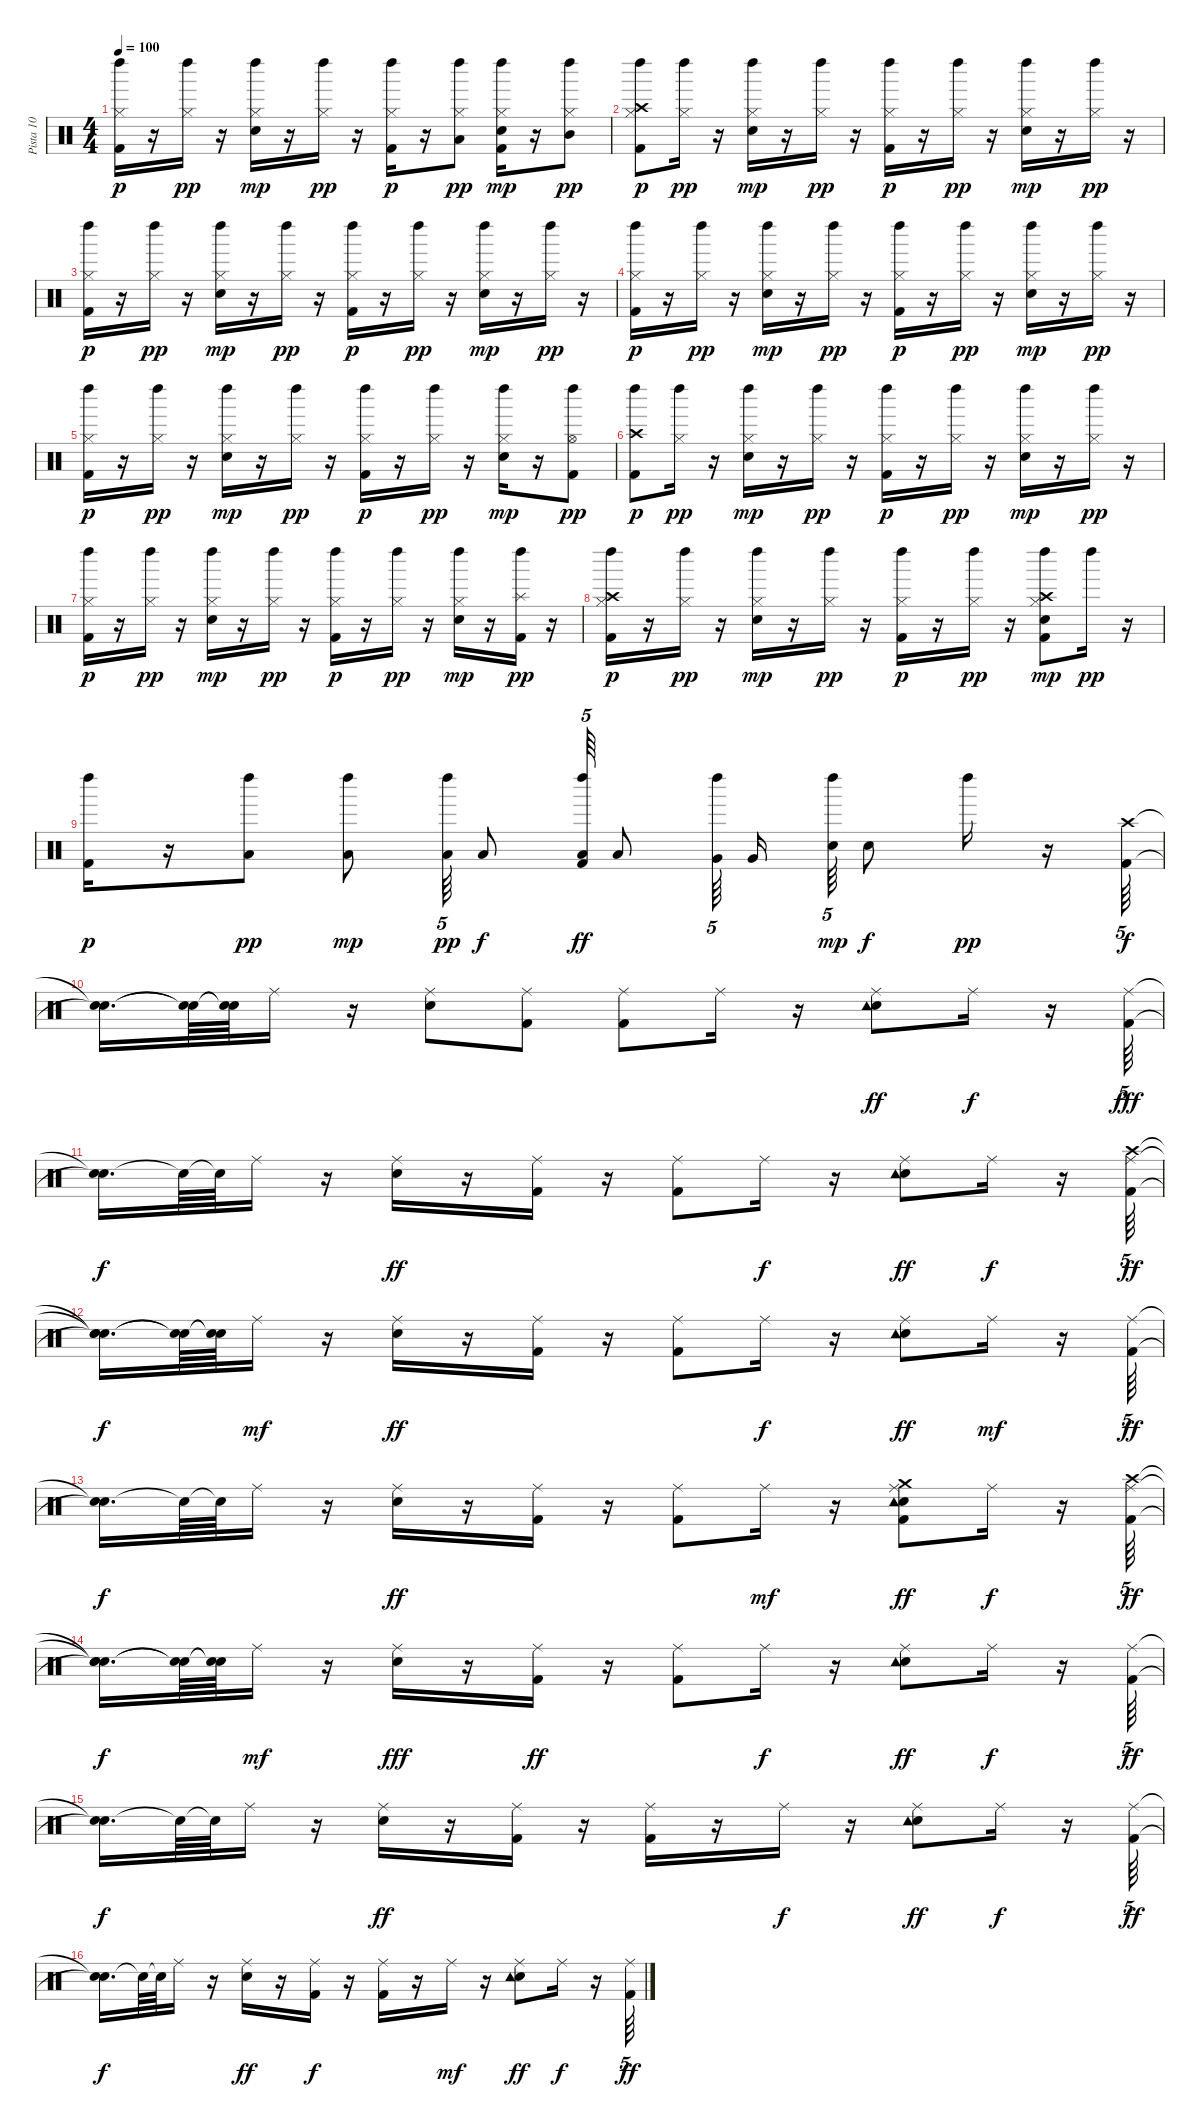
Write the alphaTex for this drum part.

\track ("Pista 10" "Pista 10") {instrument percussion}
\staff {score}
\articulation defaults
\ts (4 4)
\tempo 100
\clef neutral
\ks c
("Kick (hit) 2" "Hi-Hat (closed)" "Left Maraca (hit)").16{dy p} r.16 ("Hi-Hat (closed)" "Left Maraca (hit)").16{dy pp} r.16 ("Snare (hit) 2" "Hi-Hat (closed)" "Left Maraca (hit)").16{dy mp} r.16 ("Hi-Hat (closed)" "Left Maraca (hit)").16{dy pp} r.16 ("Kick (hit) 2" "Hi-Hat (closed)" "Left Maraca (hit)").16{dy p} r.16 ("Low Tom (hit)" "Hi-Hat (closed)" "Left Maraca (hit)").8{dy pp} ("Kick (hit) 2" "Snare (hit) 2" "Hi-Hat (closed)" "Left Maraca (hit)").16{dy mp} r.16 ("Mid Tom (hit)" "Hi-Hat (closed)" "Left Maraca (hit)").8{dy pp} |
("Crash high (hit)" "Kick (hit) 2" "Hi-Hat (closed)" "Left Maraca (hit)").8{dy p} ("Hi-Hat (closed)" "Left Maraca (hit)").16{dy pp} r.16 ("Snare (hit) 2" "Hi-Hat (closed)" "Left Maraca (hit)").16{dy mp} r.16 ("Hi-Hat (closed)" "Left Maraca (hit)").16{dy pp} r.16 ("Kick (hit) 2" "Hi-Hat (closed)" "Left Maraca (hit)").16{dy p} r.16 ("Hi-Hat (closed)" "Left Maraca (hit)").16{dy pp} r.16 ("Snare (hit) 2" "Hi-Hat (closed)" "Left Maraca (hit)").16{dy mp} r.16 ("Hi-Hat (closed)" "Left Maraca (hit)").16{dy pp} r.16 |
("Kick (hit) 2" "Hi-Hat (closed)" "Left Maraca (hit)").16{dy p} r.16 ("Hi-Hat (closed)" "Left Maraca (hit)").16{dy pp} r.16 ("Snare (hit) 2" "Hi-Hat (closed)" "Left Maraca (hit)").16{dy mp} r.16 ("Hi-Hat (closed)" "Left Maraca (hit)").16{dy pp} r.16 ("Kick (hit) 2" "Hi-Hat (closed)" "Left Maraca (hit)").16{dy p} r.16 ("Hi-Hat (closed)" "Left Maraca (hit)").16{dy pp} r.16 ("Snare (hit) 2" "Hi-Hat (closed)" "Left Maraca (hit)").16{dy mp} r.16 ("Hi-Hat (closed)" "Left Maraca (hit)").16{dy pp} r.16 |
("Kick (hit) 2" "Hi-Hat (closed)" "Left Maraca (hit)").16{dy p} r.16 ("Hi-Hat (closed)" "Left Maraca (hit)").16{dy pp} r.16 ("Snare (hit) 2" "Hi-Hat (closed)" "Left Maraca (hit)").16{dy mp} r.16 ("Hi-Hat (closed)" "Left Maraca (hit)").16{dy pp} r.16 ("Kick (hit) 2" "Hi-Hat (closed)" "Left Maraca (hit)").16{dy p} r.16 ("Hi-Hat (closed)" "Left Maraca (hit)").16{dy pp} r.16 ("Snare (hit) 2" "Hi-Hat (closed)" "Left Maraca (hit)").16{dy mp} r.16 ("Hi-Hat (closed)" "Left Maraca (hit)").16{dy pp} r.16 |
("Kick (hit) 2" "Hi-Hat (closed)" "Left Maraca (hit)").16{dy p} r.16 ("Hi-Hat (closed)" "Left Maraca (hit)").16{dy pp} r.16 ("Snare (hit) 2" "Hi-Hat (closed)" "Left Maraca (hit)").16{dy mp} r.16 ("Hi-Hat (closed)" "Left Maraca (hit)").16{dy pp} r.16 ("Kick (hit) 2" "Hi-Hat (closed)" "Left Maraca (hit)").16{dy p} r.16 ("Hi-Hat (closed)" "Left Maraca (hit)").16{dy pp} r.16 ("Snare (hit) 2" "Hi-Hat (closed)" "Left Maraca (hit)").16{dy mp} r.16 ("Kick (hit) 2" "Hi-Hat (open)" "Left Maraca (hit)").8{dy pp} |
("Crash high (hit)" "Kick (hit) 2" "Left Maraca (hit)").8{dy p} ("Hi-Hat (closed)" "Left Maraca (hit)").16{dy pp} r.16 ("Snare (hit) 2" "Hi-Hat (closed)" "Left Maraca (hit)").16{dy mp} r.16 ("Hi-Hat (closed)" "Left Maraca (hit)").16{dy pp} r.16 ("Kick (hit) 2" "Hi-Hat (closed)" "Left Maraca (hit)").16{dy p} r.16 ("Hi-Hat (closed)" "Left Maraca (hit)").16{dy pp} r.16 ("Snare (hit) 2" "Hi-Hat (closed)" "Left Maraca (hit)").16{dy mp} r.16 ("Hi-Hat (closed)" "Left Maraca (hit)").16{dy pp} r.16 |
("Kick (hit) 2" "Hi-Hat (closed)" "Left Maraca (hit)").16{dy p} r.16 ("Hi-Hat (closed)" "Left Maraca (hit)").16{dy pp} r.16 ("Snare (hit) 2" "Hi-Hat (closed)" "Left Maraca (hit)").16{dy mp} r.16 ("Hi-Hat (closed)" "Left Maraca (hit)").16{dy pp} r.16 ("Kick (hit) 2" "Hi-Hat (closed)" "Left Maraca (hit)").16{dy p} r.16 ("Hi-Hat (closed)" "Left Maraca (hit)").16{dy pp} r.16 ("Snare (hit) 2" "Hi-Hat (closed)" "Left Maraca (hit)").16{dy mp} r.16 ("Kick (hit) 2" "Splash (hit)" "Left Maraca (hit)").16{dy pp} r.16 |
("Crash high (hit)" "Kick (hit) 2" "Hi-Hat (closed)" "Left Maraca (hit)").16{dy p} r.16 ("Hi-Hat (closed)" "Left Maraca (hit)").16{dy pp} r.16 ("Snare (hit) 2" "Hi-Hat (closed)" "Left Maraca (hit)").16{dy mp} r.16 ("Hi-Hat (closed)" "Left Maraca (hit)").16{dy pp} r.16 ("Kick (hit) 2" "Hi-Hat (closed)" "Left Maraca (hit)").16{dy p} r.16 ("Hi-Hat (closed)" "Left Maraca (hit)").16{dy pp} r.16 ("Kick (hit) 2" "Crash high (hit)" "Snare (hit) 2" "Hi-Hat (closed)" "Left Maraca (hit)").8{dy mp} "Left Maraca (hit)".16{dy pp} r.16 |
("Kick (hit) 2" "Left Maraca (hit)").16{dy p} r.16 ("Low Tom (hit)" "Left Maraca (hit)").8{dy pp} ("Low Tom (hit)" "Left Maraca (hit)").8{dy mp} ("Left Maraca (hit)" "Low Tom (hit)").64{tu (5 4) dy pp} "Low Tom (hit)".8{dy f} ("Kick (hit) 2" "Left Maraca (hit)" "Low Tom (hit)").64{tu (5 4) dy ff} "Low Tom (hit)".8 ("Left Maraca (hit)" "Very Low Tom (hit)").64{tu (5 4) beam splitsecondary} "Very Low Tom (hit)".16{beam splitsecondary} ("Left Maraca (hit)" "Snare (hit) 2").64{tu (5 4) dy mp} "Snare (hit) 2".8{dy f} "Left Maraca (hit)".16{dy pp} r.16 ("Crash high (hit)" "Kick (hit) 2").64{tu (5 4) dy f} |
("Snare (hit)"{t} "Snare (hit)"{t}).16{d} ("Snare (hit)"{t} "Snare (hit)"{t}).64 ("Snare (hit)"{t} "Snare (hit)"{t}).64 "Ride (middle)".16 r.16 ("Snare (hit) 2" "Ride (middle)").8 ("Kick (hit) 2" "Ride (middle)").8 ("Kick (hit) 2" "Ride (middle)").8 "Ride (middle)".16 r.16 ("Ride (middle)" "Snare (hit) 2" "Tambourine (hit)").8{dy ff} "Ride (middle)".16{dy f} r.16 ("Ride (middle)" "Kick (hit) 2").64{tu (5 4) dy fff} |
("Snare (hit)"{t} "Snare (hit)"{t}).16{d dy f} "Snare (hit)"{t}.64 "Snare (hit)"{t}.64 "Ride (middle)".16 r.16 ("Ride (middle)" "Snare (hit) 2").16{dy ff} r.16 ("Ride (middle)" "Kick (hit) 2").16 r.16 ("Ride (middle)" "Kick (hit) 2").8 "Ride (middle)".16{dy f} r.16 ("Ride (middle)" "Snare (hit) 2" "Tambourine (hit)").8{dy ff} "Ride (middle)".16{dy f} r.16 ("Crash high (hit)" "Ride (middle)" "Kick (hit) 2").64{tu (5 4) dy ff} |
("Snare (hit)"{t} "Snare (hit)"{t} "Snare (hit)"{t}).16{d dy f} ("Snare (hit)"{t} "Snare (hit)"{t}).64 ("Snare (hit)"{t} "Snare (hit)"{t}).64 "Ride (middle)".16{dy mf} r.16 ("Ride (middle)" "Snare (hit) 2").16{dy ff} r.16 ("Ride (middle)" "Kick (hit) 2").16 r.16 ("Ride (middle)" "Kick (hit) 2").8 "Ride (middle)".16{dy f} r.16 ("Ride (middle)" "Snare (hit) 2" "Tambourine (hit)").8{dy ff} "Ride (middle)".16{dy mf} r.16 ("Ride (middle)" "Kick (hit) 2").64{tu (5 4) dy ff} |
("Snare (hit)"{t} "Snare (hit)"{t}).16{d dy f} "Snare (hit)"{t}.64 "Snare (hit)"{t}.64 "Ride (middle)".16 r.16 ("Ride (middle)" "Snare (hit) 2").16{dy ff} r.16 ("Ride (middle)" "Kick (hit) 2").16 r.16 ("Ride (middle)" "Kick (hit) 2").8 "Ride (middle)".16{dy mf} r.16 ("Kick (hit) 2" "Crash medium (hit)" "Ride (middle)" "Snare (hit) 2" "Tambourine (hit)").8{dy ff} "Ride (middle)".16{dy f} r.16 ("Crash high (hit)" "Ride (middle)" "Kick (hit) 2").64{tu (5 4) dy ff} |
("Snare (hit)"{t} "Snare (hit)"{t} "Snare (hit)"{t}).16{d dy f} ("Snare (hit)"{t} "Snare (hit)"{t}).64 ("Snare (hit)"{t} "Snare (hit)"{t}).64 "Ride (middle)".16{dy mf} r.16 ("Ride (middle)" "Snare (hit) 2").16{dy fff} r.16 ("Ride (middle)" "Kick (hit) 2").16{dy ff} r.16 ("Ride (middle)" "Kick (hit) 2").8 "Ride (middle)".16{dy f} r.16 ("Ride (middle)" "Snare (hit) 2" "Tambourine (hit)").8{dy ff} "Ride (middle)".16{dy f} r.16 ("Ride (middle)" "Kick (hit) 2").64{tu (5 4) dy ff} |
("Snare (hit)"{t} "Snare (hit)"{t}).16{d dy f} "Snare (hit)"{t}.64 "Snare (hit)"{t}.64 "Ride (middle)".16 r.16 ("Ride (middle)" "Snare (hit) 2").16{dy ff} r.16 ("Ride (middle)" "Kick (hit) 2").16 r.16 ("Ride (middle)" "Kick (hit) 2").16 r.16 "Ride (middle)".16{dy f} r.16 ("Ride (middle)" "Snare (hit) 2" "Tambourine (hit)").8{dy ff} "Ride (middle)".16{dy f} r.16 ("Ride (middle)" "Kick (hit) 2").64{tu (5 4) dy ff} |
("Snare (hit)"{t} "Snare (hit)"{t}).16{d dy f} "Snare (hit)"{t}.64 "Snare (hit)"{t}.64 "Ride (middle)".16 r.16 ("Ride (middle)" "Snare (hit) 2").16{dy ff} r.16 ("Ride (middle)" "Kick (hit) 2").16{dy f} r.16 ("Ride (middle)" "Kick (hit) 2").16 r.16 "Ride (middle)".16{dy mf} r.16 ("Ride (middle)" "Snare (hit) 2" "Tambourine (hit)").8{dy ff} "Ride (middle)".16{dy f} r.16 ("Ride (middle)" "Kick (hit) 2").64{tu (5 4) dy ff}
